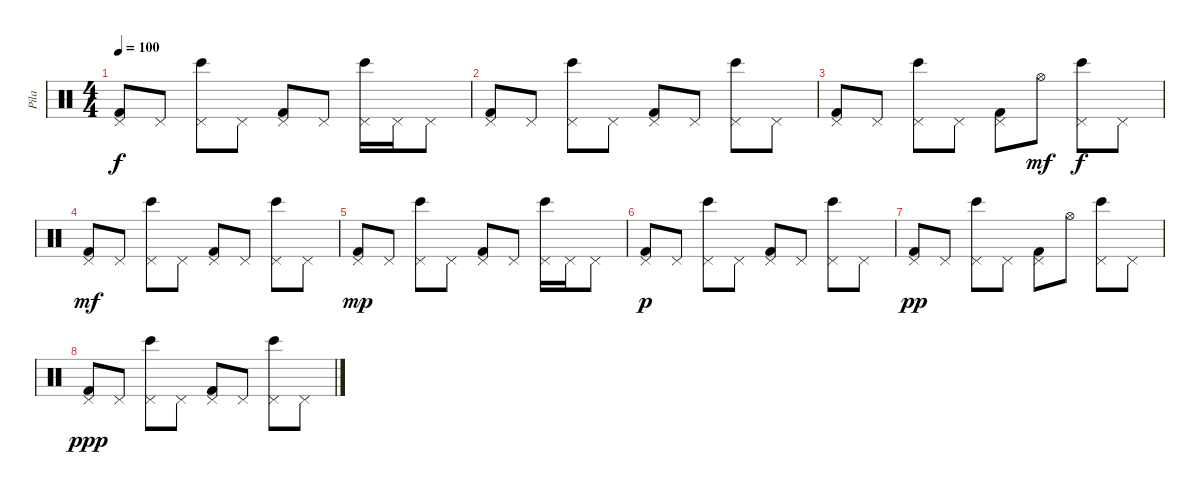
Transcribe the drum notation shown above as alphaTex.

\track ("Pila" "Pila") {instrument percussion}
\staff {score}
\articulation defaults
\ts (4 4)
\tempo 100
\clef neutral
\ks c
("Pedal Hi-Hat (hit)" "Kick (hit) 2").8{dy f} "Pedal Hi-Hat (hit)".8 ("Pedal Hi-Hat (hit)" "Bongo High (hit)").8 "Pedal Hi-Hat (hit)".8 ("Pedal Hi-Hat (hit)" "Kick (hit) 2").8 "Pedal Hi-Hat (hit)".8 ("Pedal Hi-Hat (hit)" "Bongo High (hit)").16 "Pedal Hi-Hat (hit)".16 "Pedal Hi-Hat (hit)".8 |
("Pedal Hi-Hat (hit)" "Kick (hit) 2").8 "Pedal Hi-Hat (hit)".8 ("Pedal Hi-Hat (hit)" "Bongo High (hit)").8 "Pedal Hi-Hat (hit)".8 ("Pedal Hi-Hat (hit)" "Kick (hit) 2").8 "Pedal Hi-Hat (hit)".8 ("Pedal Hi-Hat (hit)" "Bongo High (hit)").8 "Pedal Hi-Hat (hit)".8 |
("Pedal Hi-Hat (hit)" "Kick (hit) 2").8 "Pedal Hi-Hat (hit)".8 ("Pedal Hi-Hat (hit)" "Bongo High (hit)").8 "Pedal Hi-Hat (hit)".8 ("Pedal Hi-Hat (hit)" "Kick (hit) 2").8 "Hi-Hat (open)".8{dy mf} ("Pedal Hi-Hat (hit)" "Bongo High (hit)").8{dy f} "Pedal Hi-Hat (hit)".8 |
("Pedal Hi-Hat (hit)" "Kick (hit) 2").8{dy mf} "Pedal Hi-Hat (hit)".8 ("Pedal Hi-Hat (hit)" "Bongo High (hit)").8 "Pedal Hi-Hat (hit)".8 ("Pedal Hi-Hat (hit)" "Kick (hit) 2").8 "Pedal Hi-Hat (hit)".8 ("Pedal Hi-Hat (hit)" "Bongo High (hit)").8 "Pedal Hi-Hat (hit)".8 |
("Pedal Hi-Hat (hit)" "Kick (hit) 2").8{dy mp} "Pedal Hi-Hat (hit)".8 ("Pedal Hi-Hat (hit)" "Bongo High (hit)").8 "Pedal Hi-Hat (hit)".8 ("Pedal Hi-Hat (hit)" "Kick (hit) 2").8 "Pedal Hi-Hat (hit)".8 ("Pedal Hi-Hat (hit)" "Bongo High (hit)").16 "Pedal Hi-Hat (hit)".16 "Pedal Hi-Hat (hit)".8 |
("Pedal Hi-Hat (hit)" "Kick (hit) 2").8{dy p} "Pedal Hi-Hat (hit)".8 ("Pedal Hi-Hat (hit)" "Bongo High (hit)").8 "Pedal Hi-Hat (hit)".8 ("Pedal Hi-Hat (hit)" "Kick (hit) 2").8 "Pedal Hi-Hat (hit)".8 ("Pedal Hi-Hat (hit)" "Bongo High (hit)").8 "Pedal Hi-Hat (hit)".8 |
("Pedal Hi-Hat (hit)" "Kick (hit) 2").8{dy pp} "Pedal Hi-Hat (hit)".8 ("Pedal Hi-Hat (hit)" "Bongo High (hit)").8 "Pedal Hi-Hat (hit)".8 ("Pedal Hi-Hat (hit)" "Kick (hit) 2").8 "Hi-Hat (open)".8 ("Pedal Hi-Hat (hit)" "Bongo High (hit)").8 "Pedal Hi-Hat (hit)".8 |
("Pedal Hi-Hat (hit)" "Kick (hit) 2").8{dy ppp} "Pedal Hi-Hat (hit)".8 ("Pedal Hi-Hat (hit)" "Bongo High (hit)").8 "Pedal Hi-Hat (hit)".8 ("Pedal Hi-Hat (hit)" "Kick (hit) 2").8 "Pedal Hi-Hat (hit)".8 ("Pedal Hi-Hat (hit)" "Bongo High (hit)").8 "Pedal Hi-Hat (hit)".8
